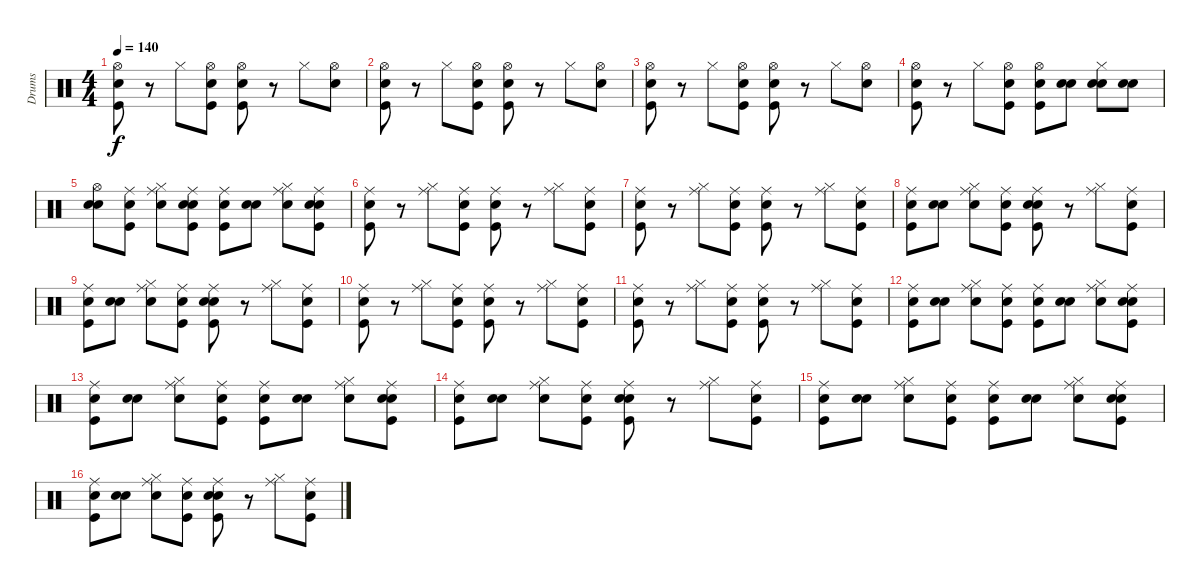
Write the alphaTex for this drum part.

\track ("Drums" "Drums") {instrument percussion}
\staff {score}
\articulation defaults
\ts (4 4)
\tempo 140
\clef neutral
\ks c
("Snare (hit)" "Kick (hit)" "Hi-Hat (open)").8{dy f} r.8 "Hi-Hat (closed)".8 ("Snare (hit)" "Kick (hit)" "Hi-Hat (open)").8 ("Snare (hit)" "Kick (hit)" "Hi-Hat (open)").8 r.8 "Hi-Hat (closed)".8 ("Snare (hit)" "Hi-Hat (open)").8 |
("Snare (hit)" "Kick (hit)" "Hi-Hat (open)").8 r.8 "Hi-Hat (closed)".8 ("Snare (hit)" "Kick (hit)" "Hi-Hat (open)").8 ("Snare (hit)" "Kick (hit)" "Hi-Hat (open)").8 r.8 "Hi-Hat (closed)".8 ("Snare (hit)" "Hi-Hat (open)").8 |
("Snare (hit)" "Kick (hit)" "Hi-Hat (open)").8 r.8 "Hi-Hat (closed)".8 ("Snare (hit)" "Kick (hit)" "Hi-Hat (open)").8 ("Snare (hit)" "Kick (hit)" "Hi-Hat (open)").8 r.8 "Hi-Hat (closed)".8 ("Snare (hit)" "Hi-Hat (open)").8 |
("Snare (hit)" "Kick (hit)" "Hi-Hat (open)").8 r.8 "Hi-Hat (closed)".8 ("Snare (hit)" "Kick (hit)" "Hi-Hat (open)").8 ("Snare (hit)" "Kick (hit)" "Hi-Hat (open)").8 ("Snare (hit)" "Snare (hit) 2").8 ("Snare (hit)" "Snare (hit) 2" "Hi-Hat (closed)").8 ("Snare (hit)" "Snare (hit) 2").8 |
("Snare (hit)" "Snare (hit) 2" "Hi-Hat (open)").8 ("Snare (hit)" "Kick (hit)" "Ride (middle)").8 ("Snare (hit)" "Hi-Hat (closed)" "Ride (middle)").8 ("Snare (hit)" "Kick (hit)" "Snare (hit) 2" "Ride (middle)").8 ("Snare (hit)" "Kick (hit)" "Ride (middle)").8 ("Snare (hit)" "Snare (hit) 2").8 ("Snare (hit)" "Hi-Hat (closed)" "Ride (middle)").8 ("Snare (hit)" "Kick (hit)" "Snare (hit) 2" "Ride (middle)").8 |
("Snare (hit)" "Kick (hit)" "Ride (middle)").8 r.8 ("Hi-Hat (closed)" "Ride (middle)").8 ("Snare (hit)" "Kick (hit)" "Ride (middle)").8 ("Snare (hit)" "Kick (hit)" "Ride (middle)").8 r.8 ("Hi-Hat (closed)" "Ride (middle)").8 ("Snare (hit)" "Kick (hit)" "Ride (middle)").8 |
("Snare (hit)" "Kick (hit)" "Ride (middle)").8 r.8 ("Hi-Hat (closed)" "Ride (middle)").8 ("Snare (hit)" "Kick (hit)" "Ride (middle)").8 ("Snare (hit)" "Kick (hit)" "Ride (middle)").8 r.8 ("Hi-Hat (closed)" "Ride (middle)").8 ("Snare (hit)" "Kick (hit)" "Ride (middle)").8 |
("Snare (hit)" "Kick (hit)" "Ride (middle)").8 ("Snare (hit)" "Snare (hit) 2").8 ("Snare (hit)" "Hi-Hat (closed)" "Ride (middle)").8 ("Snare (hit)" "Kick (hit)" "Ride (middle)").8 ("Snare (hit)" "Kick (hit)" "Snare (hit) 2" "Ride (middle)").8 r.8 ("Hi-Hat (closed)" "Ride (middle)").8 ("Snare (hit)" "Kick (hit)" "Ride (middle)").8 |
("Snare (hit)" "Kick (hit)" "Ride (middle)").8 ("Snare (hit)" "Snare (hit) 2").8 ("Snare (hit)" "Hi-Hat (closed)" "Ride (middle)").8 ("Snare (hit)" "Kick (hit)" "Ride (middle)").8 ("Snare (hit)" "Kick (hit)" "Snare (hit) 2" "Ride (middle)").8 r.8 ("Hi-Hat (closed)" "Ride (middle)").8 ("Snare (hit)" "Kick (hit)" "Ride (middle)").8 |
("Snare (hit)" "Kick (hit)" "Ride (middle)").8 r.8 ("Hi-Hat (closed)" "Ride (middle)").8 ("Snare (hit)" "Kick (hit)" "Ride (middle)").8 ("Snare (hit)" "Kick (hit)" "Ride (middle)").8 r.8 ("Hi-Hat (closed)" "Ride (middle)").8 ("Snare (hit)" "Kick (hit)" "Ride (middle)").8 |
("Snare (hit)" "Kick (hit)" "Ride (middle)").8 r.8 ("Hi-Hat (closed)" "Ride (middle)").8 ("Snare (hit)" "Kick (hit)" "Ride (middle)").8 ("Snare (hit)" "Kick (hit)" "Ride (middle)").8 r.8 ("Hi-Hat (closed)" "Ride (middle)").8 ("Snare (hit)" "Kick (hit)" "Ride (middle)").8 |
("Snare (hit)" "Kick (hit)" "Ride (middle)").8 ("Snare (hit)" "Snare (hit) 2").8 ("Snare (hit)" "Hi-Hat (closed)" "Ride (middle)").8 ("Snare (hit)" "Kick (hit)" "Ride (middle)").8 ("Snare (hit)" "Kick (hit)" "Ride (middle)").8 ("Snare (hit)" "Snare (hit) 2").8 ("Snare (hit)" "Hi-Hat (closed)" "Ride (middle)").8 ("Snare (hit)" "Kick (hit)" "Snare (hit) 2" "Ride (middle)").8 |
("Snare (hit)" "Kick (hit)" "Ride (middle)").8 ("Snare (hit)" "Snare (hit) 2").8 ("Snare (hit)" "Hi-Hat (closed)" "Ride (middle)").8 ("Snare (hit)" "Kick (hit)" "Ride (middle)").8 ("Snare (hit)" "Kick (hit)" "Ride (middle)").8 ("Snare (hit)" "Snare (hit) 2").8 ("Snare (hit)" "Hi-Hat (closed)" "Ride (middle)").8 ("Snare (hit)" "Kick (hit)" "Snare (hit) 2" "Ride (middle)").8 |
("Snare (hit)" "Kick (hit)" "Ride (middle)").8 ("Snare (hit)" "Snare (hit) 2").8 ("Snare (hit)" "Hi-Hat (closed)" "Ride (middle)").8 ("Snare (hit)" "Kick (hit)" "Ride (middle)").8 ("Snare (hit)" "Kick (hit)" "Snare (hit) 2" "Ride (middle)").8 r.8 ("Hi-Hat (closed)" "Ride (middle)").8 ("Snare (hit)" "Kick (hit)" "Ride (middle)").8 |
("Snare (hit)" "Kick (hit)" "Ride (middle)").8 ("Snare (hit)" "Snare (hit) 2").8 ("Snare (hit)" "Hi-Hat (closed)" "Ride (middle)").8 ("Snare (hit)" "Kick (hit)" "Ride (middle)").8 ("Snare (hit)" "Kick (hit)" "Ride (middle)").8 ("Snare (hit)" "Snare (hit) 2").8 ("Snare (hit)" "Hi-Hat (closed)" "Ride (middle)").8 ("Snare (hit)" "Kick (hit)" "Snare (hit) 2" "Ride (middle)").8 |
("Snare (hit)" "Kick (hit)" "Ride (middle)").8 ("Snare (hit)" "Snare (hit) 2").8 ("Snare (hit)" "Hi-Hat (closed)" "Ride (middle)").8 ("Snare (hit)" "Kick (hit)" "Ride (middle)").8 ("Snare (hit)" "Kick (hit)" "Snare (hit) 2" "Ride (middle)").8 r.8 ("Hi-Hat (closed)" "Ride (middle)").8 ("Snare (hit)" "Kick (hit)" "Ride (middle)").8
